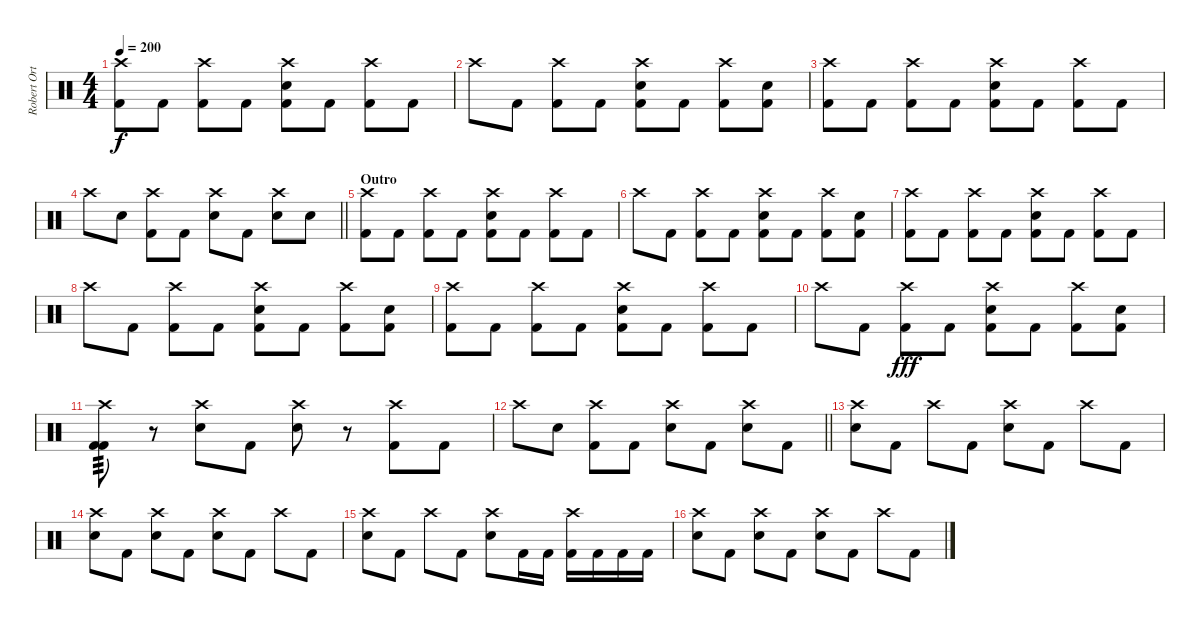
\track ("Robert Ortiz" "Robert Ort") {instrument percussion}
\staff {score}
\articulation defaults
\ts (4 4)
\tempo 200
\clef neutral
\ks c
("Crash high (hit)" "Kick (hit) 2").8{dy f} "Kick (hit) 2".8 ("Crash high (hit)" "Kick (hit) 2").8 "Kick (hit) 2".8 ("Crash high (hit)" "Electric Snare (hit)" "Kick (hit) 2").8 "Kick (hit) 2".8 ("Crash high (hit)" "Kick (hit) 2").8 "Kick (hit) 2".8 |
"Crash high (hit)".8 "Kick (hit) 2".8 ("Crash high (hit)" "Kick (hit) 2").8 "Kick (hit) 2".8 ("Crash high (hit)" "Electric Snare (hit)" "Kick (hit) 2").8 "Kick (hit) 2".8 ("Crash high (hit)" "Kick (hit) 2").8 ("Electric Snare (hit)" "Kick (hit) 2").8 |
("Crash high (hit)" "Kick (hit) 2").8 "Kick (hit) 2".8 ("Crash high (hit)" "Kick (hit) 2").8 "Kick (hit) 2".8 ("Crash high (hit)" "Electric Snare (hit)" "Kick (hit) 2").8 "Kick (hit) 2".8 ("Crash high (hit)" "Kick (hit) 2").8 "Kick (hit) 2".8 |
\barLineRight lightlight "Crash high (hit)".8 "Electric Snare (hit)".8
("Crash high (hit)" "Kick (hit) 2").8 "Kick (hit) 2".8 ("Crash high (hit)" "Electric Snare (hit)").8 "Kick (hit) 2".8 ("Crash high (hit)" "Electric Snare (hit)").8 "Electric Snare (hit)".8 |
\section ("" "Outro")
("Crash high (hit)" "Kick (hit) 2").8 "Kick (hit) 2".8 ("Crash high (hit)" "Kick (hit) 2").8 "Kick (hit) 2".8 ("Crash high (hit)" "Electric Snare (hit)" "Kick (hit) 2").8 "Kick (hit) 2".8 ("Crash high (hit)" "Kick (hit) 2").8 "Kick (hit) 2".8 |
"Crash high (hit)".8 "Kick (hit) 2".8 ("Crash high (hit)" "Kick (hit) 2").8 "Kick (hit) 2".8 ("Crash high (hit)" "Electric Snare (hit)" "Kick (hit) 2").8 "Kick (hit) 2".8 ("Crash high (hit)" "Kick (hit) 2").8 ("Electric Snare (hit)" "Kick (hit) 2").8 |
("Crash high (hit)" "Kick (hit) 2").8 "Kick (hit) 2".8 ("Crash high (hit)" "Kick (hit) 2").8 "Kick (hit) 2".8 ("Crash high (hit)" "Electric Snare (hit)" "Kick (hit) 2").8 "Kick (hit) 2".8 ("Crash high (hit)" "Kick (hit) 2").8 "Kick (hit) 2".8 |
"Crash high (hit)".8 "Kick (hit) 2".8 ("Crash high (hit)" "Kick (hit) 2").8 "Kick (hit) 2".8 ("Crash high (hit)" "Electric Snare (hit)" "Kick (hit) 2").8 "Kick (hit) 2".8 ("Crash high (hit)" "Kick (hit) 2").8 ("Electric Snare (hit)" "Kick (hit) 2").8 |
("Crash high (hit)" "Kick (hit) 2").8 "Kick (hit) 2".8 ("Crash high (hit)" "Kick (hit) 2").8 "Kick (hit) 2".8 ("Crash high (hit)" "Electric Snare (hit)" "Kick (hit) 2").8 "Kick (hit) 2".8 ("Crash high (hit)" "Kick (hit) 2").8 "Kick (hit) 2".8 |
"Crash high (hit)".8 "Kick (hit) 2".8 ("Crash high (hit)" "Kick (hit) 2").8{dy fff} "Kick (hit) 2".8 ("Crash high (hit)" "Electric Snare (hit)" "Kick (hit) 2").8 "Kick (hit) 2".8 ("Crash high (hit)" "Kick (hit) 2").8 ("Electric Snare (hit)" "Kick (hit) 2").8 |
("Crash high (hit)" "Kick (hit) 2" "Kick (hit) 2").8{tp 3} r.8 ("Crash high (hit)" "Electric Snare (hit)").8 "Kick (hit) 2".8 ("Crash high (hit)" "Electric Snare (hit)").8 r.8 ("Crash high (hit)" "Kick (hit) 2").8 "Kick (hit) 2".8 |
\barLineRight lightlight "Crash high (hit)".8 "Electric Snare (hit)".8
("Crash high (hit)" "Kick (hit) 2").8 "Kick (hit) 2".8 ("Crash high (hit)" "Electric Snare (hit)").8 "Kick (hit) 2".8 ("Crash high (hit)" "Electric Snare (hit)").8 "Kick (hit) 2".8 |
("Crash high (hit)" "Electric Snare (hit)").8 "Kick (hit) 2".8 "Crash high (hit)".8 "Kick (hit) 2".8 ("Crash high (hit)" "Electric Snare (hit)").8 "Kick (hit) 2".8 "Crash high (hit)".8 "Kick (hit) 2".8 |
("Crash high (hit)" "Electric Snare (hit)").8 "Kick (hit) 2".8 ("Crash high (hit)" "Electric Snare (hit)").8 "Kick (hit) 2".8 ("Crash high (hit)" "Electric Snare (hit)").8 "Kick (hit) 2".8 "Crash high (hit)".8 "Kick (hit) 2".8 |
("Crash high (hit)" "Electric Snare (hit)").8 "Kick (hit) 2".8 "Crash high (hit)".8 "Kick (hit) 2".8 ("Crash high (hit)" "Electric Snare (hit)").8 "Kick (hit) 2".16 "Kick (hit) 2".16 ("Crash high (hit)" "Kick (hit) 2").16 "Kick (hit) 2".16 "Kick (hit) 2".16 "Kick (hit) 2".16 |
("Crash high (hit)" "Electric Snare (hit)").8 "Kick (hit) 2".8 ("Crash high (hit)" "Electric Snare (hit)").8 "Kick (hit) 2".8 ("Crash high (hit)" "Electric Snare (hit)").8 "Kick (hit) 2".8 "Crash high (hit)".8 "Kick (hit) 2".8
